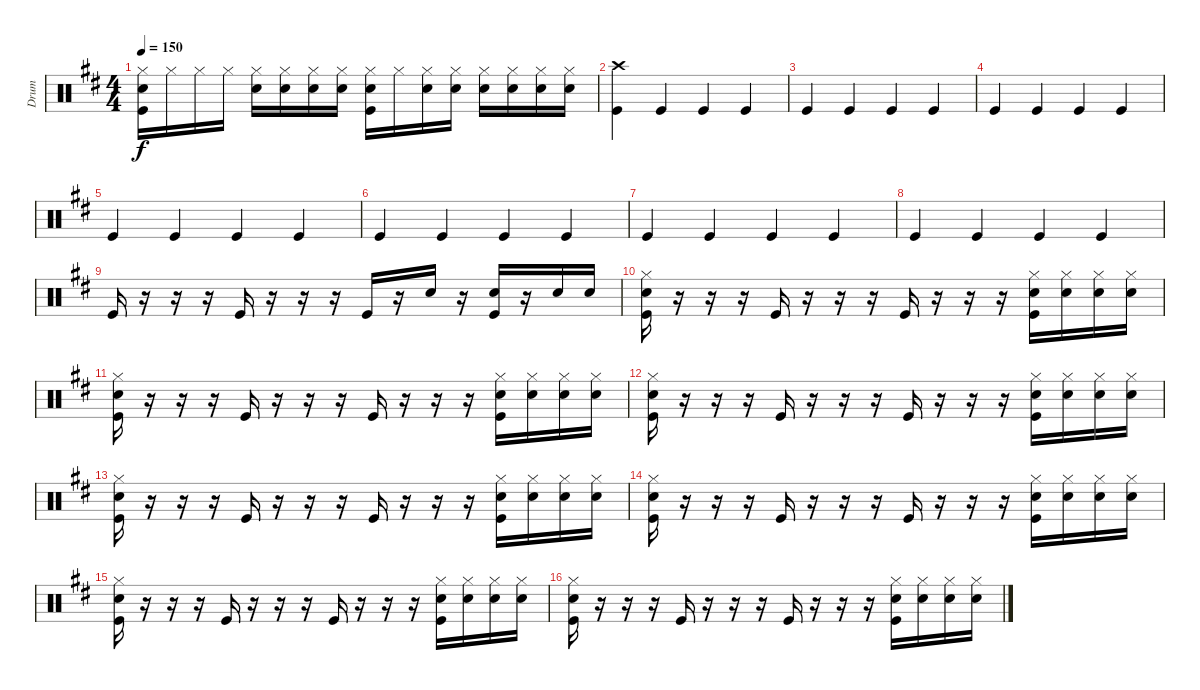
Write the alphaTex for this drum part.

\track ("Drum" "Drum") {instrument percussion}
\staff {score}
\articulation defaults
\ts (4 4)
\tempo 150
\clef neutral
\ks d
("Hi-Hat (closed)" "Kick (hit)" "Snare (hit) 2").16{dy f} "Hi-Hat (closed)".16 "Hi-Hat (closed)".16 "Hi-Hat (closed)".16 ("Hi-Hat (closed)" "Snare (hit) 2").16 ("Hi-Hat (closed)" "Snare (hit) 2").16 ("Hi-Hat (closed)" "Snare (hit) 2").16 ("Hi-Hat (closed)" "Snare (hit) 2").16 ("Hi-Hat (closed)" "Kick (hit)" "Snare (hit) 2").16 "Hi-Hat (closed)".16 ("Hi-Hat (closed)" "Snare (hit) 2").16 ("Hi-Hat (closed)" "Snare (hit) 2").16 ("Hi-Hat (closed)" "Snare (hit) 2").16 ("Hi-Hat (closed)" "Snare (hit) 2").16 ("Hi-Hat (closed)" "Snare (hit) 2").16 ("Hi-Hat (closed)" "Snare (hit) 2").16 |
("Crash high (hit)" "Kick (hit)").4 "Kick (hit)".4 "Kick (hit)".4 "Kick (hit)".4 |
"Kick (hit)".4 "Kick (hit)".4 "Kick (hit)".4 "Kick (hit)".4 |
"Kick (hit)".4 "Kick (hit)".4 "Kick (hit)".4 "Kick (hit)".4 |
"Kick (hit)".4 "Kick (hit)".4 "Kick (hit)".4 "Kick (hit)".4 |
"Kick (hit)".4 "Kick (hit)".4 "Kick (hit)".4 "Kick (hit)".4 |
"Kick (hit)".4 "Kick (hit)".4 "Kick (hit)".4 "Kick (hit)".4 |
"Kick (hit)".4 "Kick (hit)".4 "Kick (hit)".4 "Kick (hit)".4 |
"Kick (hit)".16 r.16 r.16 r.16 "Kick (hit)".16 r.16 r.16 r.16 "Kick (hit)".16 r.16 "Snare (hit) 2".16 r.16 ("Kick (hit)" "Snare (hit) 2").16 r.16 "Snare (hit) 2".16 "Snare (hit) 2".16 |
("Snare (hit) 2" "Kick (hit)" "Hi-Hat (closed)").16 r.16 r.16 r.16 "Kick (hit)".16 r.16 r.16 r.16 "Kick (hit)".16 r.16 r.16 r.16 ("Kick (hit)" "Snare (hit) 2" "Hi-Hat (closed)").16 ("Snare (hit) 2" "Hi-Hat (closed)").16 ("Snare (hit) 2" "Hi-Hat (closed)").16 ("Snare (hit) 2" "Hi-Hat (closed)").16 |
("Snare (hit) 2" "Kick (hit)" "Hi-Hat (closed)").16 r.16 r.16 r.16 "Kick (hit)".16 r.16 r.16 r.16 "Kick (hit)".16 r.16 r.16 r.16 ("Kick (hit)" "Snare (hit) 2" "Hi-Hat (closed)").16 ("Snare (hit) 2" "Hi-Hat (closed)").16 ("Snare (hit) 2" "Hi-Hat (closed)").16 ("Snare (hit) 2" "Hi-Hat (closed)").16 |
("Snare (hit) 2" "Kick (hit)" "Hi-Hat (closed)").16 r.16 r.16 r.16 "Kick (hit)".16 r.16 r.16 r.16 "Kick (hit)".16 r.16 r.16 r.16 ("Kick (hit)" "Snare (hit) 2" "Hi-Hat (closed)").16 ("Snare (hit) 2" "Hi-Hat (closed)").16 ("Snare (hit) 2" "Hi-Hat (closed)").16 ("Snare (hit) 2" "Hi-Hat (closed)").16 |
("Snare (hit) 2" "Kick (hit)" "Hi-Hat (closed)").16 r.16 r.16 r.16 "Kick (hit)".16 r.16 r.16 r.16 "Kick (hit)".16 r.16 r.16 r.16 ("Kick (hit)" "Snare (hit) 2" "Hi-Hat (closed)").16 ("Snare (hit) 2" "Hi-Hat (closed)").16 ("Snare (hit) 2" "Hi-Hat (closed)").16 ("Snare (hit) 2" "Hi-Hat (closed)").16 |
("Snare (hit) 2" "Kick (hit)" "Hi-Hat (closed)").16 r.16 r.16 r.16 "Kick (hit)".16 r.16 r.16 r.16 "Kick (hit)".16 r.16 r.16 r.16 ("Kick (hit)" "Snare (hit) 2" "Hi-Hat (closed)").16 ("Snare (hit) 2" "Hi-Hat (closed)").16 ("Snare (hit) 2" "Hi-Hat (closed)").16 ("Snare (hit) 2" "Hi-Hat (closed)").16 |
("Snare (hit) 2" "Kick (hit)" "Hi-Hat (closed)").16 r.16 r.16 r.16 "Kick (hit)".16 r.16 r.16 r.16 "Kick (hit)".16 r.16 r.16 r.16 ("Kick (hit)" "Snare (hit) 2" "Hi-Hat (closed)").16 ("Snare (hit) 2" "Hi-Hat (closed)").16 ("Snare (hit) 2" "Hi-Hat (closed)").16 ("Snare (hit) 2" "Hi-Hat (closed)").16 |
("Snare (hit) 2" "Kick (hit)" "Hi-Hat (closed)").16 r.16 r.16 r.16 "Kick (hit)".16 r.16 r.16 r.16 "Kick (hit)".16 r.16 r.16 r.16 ("Kick (hit)" "Snare (hit) 2" "Hi-Hat (closed)").16 ("Snare (hit) 2" "Hi-Hat (closed)").16 ("Snare (hit) 2" "Hi-Hat (closed)").16 ("Snare (hit) 2" "Hi-Hat (closed)").16
